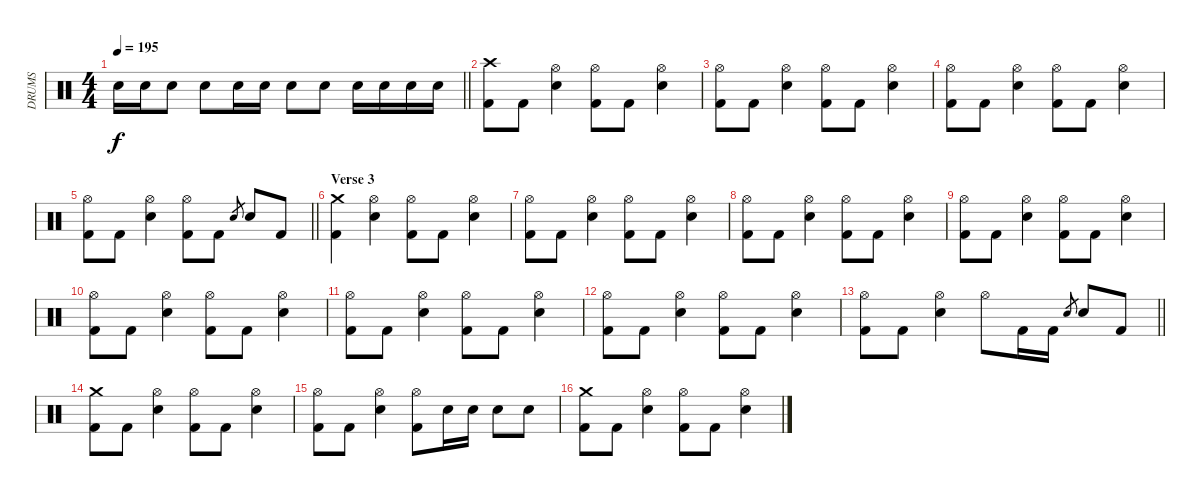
\track ("DRUMS" "DRUMS") {instrument percussion}
\staff {score}
\articulation defaults
\ts (4 4)
\tempo 195
\clef neutral
\barLineRight lightlight
\ks c "Snare (hit) 2".16{dy f} "Snare (hit) 2".16 "Snare (hit) 2".8 "Snare (hit) 2".8 "Snare (hit) 2".16 "Snare (hit) 2".16 "Snare (hit) 2".8 "Snare (hit) 2".8 "Snare (hit) 2".16 "Snare (hit) 2".16 "Snare (hit) 2".16 "Snare (hit) 2".16
|
("Crash high (hit)" "Kick (hit) 2").8 "Kick (hit) 2".8 ("Hi-Hat (open)" "Snare (hit) 2").4 ("Hi-Hat (open)" "Kick (hit) 2").8 "Kick (hit) 2".8 ("Hi-Hat (open)" "Snare (hit) 2").4 |
("Hi-Hat (open)" "Kick (hit) 2").8 "Kick (hit) 2".8 ("Hi-Hat (open)" "Snare (hit) 2").4 ("Hi-Hat (open)" "Kick (hit) 2").8 "Kick (hit) 2".8 ("Hi-Hat (open)" "Snare (hit) 2").4 |
("Hi-Hat (open)" "Kick (hit) 2").8 "Kick (hit) 2".8 ("Hi-Hat (open)" "Snare (hit) 2").4 ("Hi-Hat (open)" "Kick (hit) 2").8 "Kick (hit) 2".8 ("Hi-Hat (open)" "Snare (hit) 2").4 |
\barLineRight lightlight
("Hi-Hat (open)" "Kick (hit) 2").8 "Kick (hit) 2".8 ("Hi-Hat (open)" "Snare (hit) 2").4 ("Hi-Hat (open)" "Kick (hit) 2").8 "Kick (hit) 2".8 "Snare (hit) 2".8{gr} "Snare (hit) 2".8 "Kick (hit) 2".8 |
\section ("" "Verse 3")
("Crash medium (hit)" "Kick (hit) 2").4 ("Hi-Hat (open)" "Snare (hit) 2").4 ("Hi-Hat (open)" "Kick (hit) 2").8 "Kick (hit) 2".8 ("Hi-Hat (open)" "Snare (hit) 2").4 |
("Hi-Hat (open)" "Kick (hit) 2").8 "Kick (hit) 2".8 ("Hi-Hat (open)" "Snare (hit) 2").4 ("Hi-Hat (open)" "Kick (hit) 2").8 "Kick (hit) 2".8 ("Hi-Hat (open)" "Snare (hit) 2").4 |
("Hi-Hat (open)" "Kick (hit) 2").8 "Kick (hit) 2".8 ("Hi-Hat (open)" "Snare (hit) 2").4 ("Hi-Hat (open)" "Kick (hit) 2").8 "Kick (hit) 2".8 ("Hi-Hat (open)" "Snare (hit) 2").4 |
("Hi-Hat (open)" "Kick (hit) 2").8 "Kick (hit) 2".8 ("Hi-Hat (open)" "Snare (hit) 2").4 ("Hi-Hat (open)" "Kick (hit) 2").8 "Kick (hit) 2".8 ("Hi-Hat (open)" "Snare (hit) 2").4 |
("Hi-Hat (open)" "Kick (hit) 2").8 "Kick (hit) 2".8 ("Hi-Hat (open)" "Snare (hit) 2").4 ("Hi-Hat (open)" "Kick (hit) 2").8 "Kick (hit) 2".8 ("Hi-Hat (open)" "Snare (hit) 2").4 |
("Hi-Hat (open)" "Kick (hit) 2").8 "Kick (hit) 2".8 ("Hi-Hat (open)" "Snare (hit) 2").4 ("Hi-Hat (open)" "Kick (hit) 2").8 "Kick (hit) 2".8 ("Hi-Hat (open)" "Snare (hit) 2").4 |
("Hi-Hat (open)" "Kick (hit) 2").8 "Kick (hit) 2".8 ("Hi-Hat (open)" "Snare (hit) 2").4 ("Hi-Hat (open)" "Kick (hit) 2").8 "Kick (hit) 2".8 ("Hi-Hat (open)" "Snare (hit) 2").4 |
\barLineRight lightlight
("Hi-Hat (open)" "Kick (hit) 2").8 "Kick (hit) 2".8 ("Hi-Hat (open)" "Snare (hit) 2").4 "Hi-Hat (open)".8 "Kick (hit) 2".16 "Kick (hit) 2".16 "Snare (hit) 2".8{gr} "Snare (hit) 2".8 "Kick (hit) 2".8 |
("Crash medium (hit)" "Kick (hit) 2").8 "Kick (hit) 2".8 ("Hi-Hat (open)" "Snare (hit) 2").4 ("Hi-Hat (open)" "Kick (hit) 2").8 "Kick (hit) 2".8 ("Hi-Hat (open)" "Snare (hit) 2").4 |
("Hi-Hat (open)" "Kick (hit) 2").8 "Kick (hit) 2".8 ("Hi-Hat (open)" "Snare (hit) 2").4 ("Hi-Hat (open)" "Kick (hit) 2").8 "Snare (hit) 2".16 "Snare (hit) 2".16 "Snare (hit) 2".8 "Snare (hit) 2".8 |
("Crash medium (hit)" "Kick (hit) 2").8 "Kick (hit) 2".8 ("Hi-Hat (open)" "Snare (hit) 2").4 ("Hi-Hat (open)" "Kick (hit) 2").8 "Kick (hit) 2".8 ("Hi-Hat (open)" "Snare (hit) 2").4
